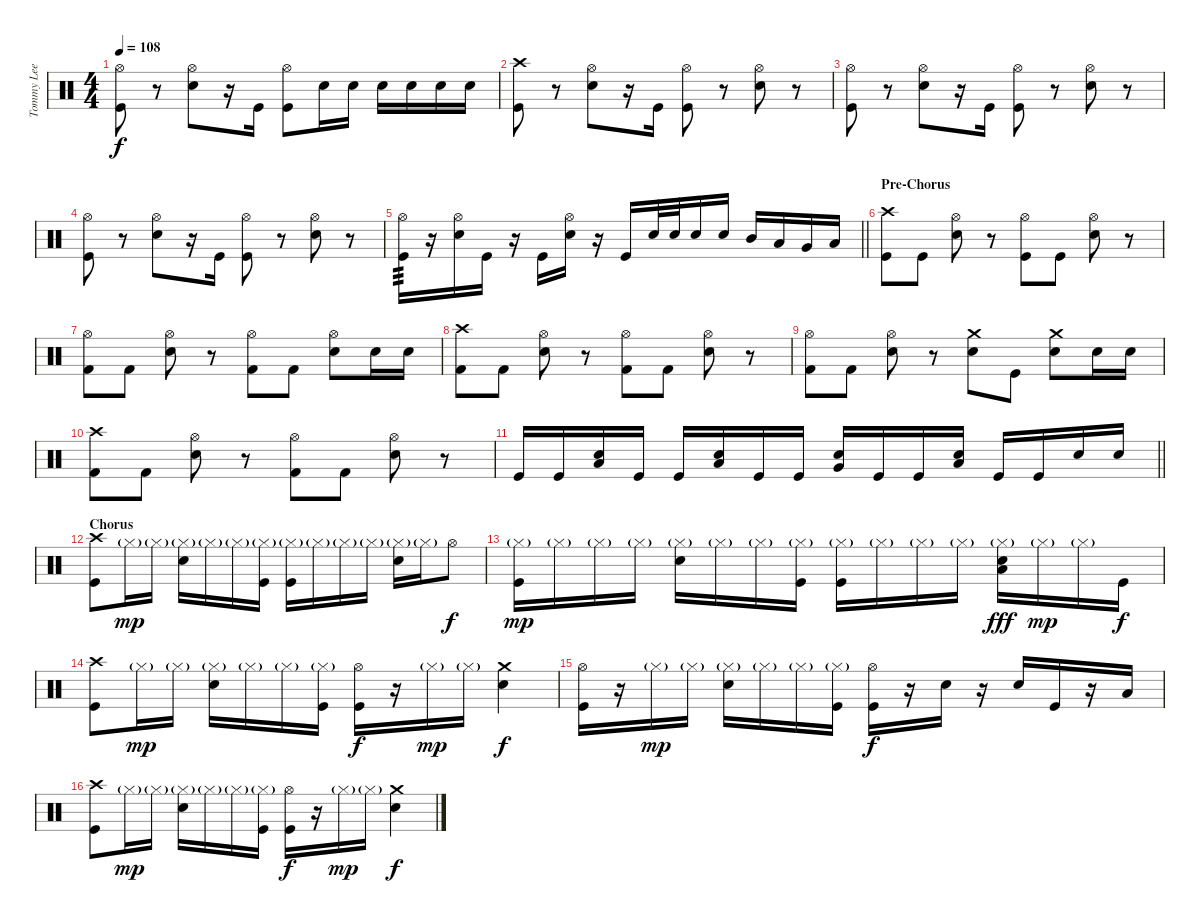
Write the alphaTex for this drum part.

\track ("Tommy Lee" "Tommy Lee") {instrument percussion}
\staff {score}
\articulation defaults
\ts (4 4)
\tempo 108
\clef neutral
\ks c
("Hi-Hat (open)" "Kick (hit)").8{dy f} r.8 ("Hi-Hat (open)" "Snare (hit) 2").8 r.16 "Kick (hit)".16 ("Hi-Hat (open)" "Kick (hit)").8 "Snare (hit) 2".16 "Snare (hit) 2".16 "Snare (hit) 2".16 "Snare (hit) 2".16 "Snare (hit) 2".16 "Snare (hit) 2".16 |
("Crash high (hit)" "Kick (hit)").8 r.8 ("Hi-Hat (open)" "Snare (hit) 2").8 r.16 "Kick (hit)".16 ("Hi-Hat (open)" "Kick (hit)").8 r.8 ("Hi-Hat (open)" "Snare (hit) 2").8 r.8 |
("Hi-Hat (open)" "Kick (hit)").8 r.8 ("Hi-Hat (open)" "Snare (hit) 2").8 r.16 "Kick (hit)".16 ("Hi-Hat (open)" "Kick (hit)").8 r.8 ("Hi-Hat (open)" "Snare (hit) 2").8 r.8 |
("Hi-Hat (open)" "Kick (hit)").8 r.8 ("Hi-Hat (open)" "Snare (hit) 2").8 r.16 "Kick (hit)".16 ("Hi-Hat (open)" "Kick (hit)").8 r.8 ("Hi-Hat (open)" "Snare (hit) 2").8 r.8 |
\barLineRight lightlight
("Hi-Hat (open)" "Kick (hit)").16{tp 3} r.16 ("Hi-Hat (open)" "Snare (hit) 2").16 "Kick (hit)".16 r.16 "Kick (hit)".16 ("Hi-Hat (open)" "Snare (hit) 2").16 r.16 "Kick (hit)".16 "Snare (hit) 2".32 "Snare (hit) 2".32 "Snare (hit) 2".16 "Snare (hit) 2".16 "Mid Tom (hit)".16 "Low Tom (hit)".16 "Very Low Tom (hit)".16 "Low Floor Tom (hit)".16 |
\section ("" "Pre-Chorus")
("Crash high (hit)" "Kick (hit)").8 "Kick (hit)".8 ("Hi-Hat (open)" "Snare (hit) 2").8 r.8 ("Hi-Hat (open)" "Kick (hit)").8 "Kick (hit)".8 ("Hi-Hat (open)" "Snare (hit) 2").8 r.8 |
("Hi-Hat (open)" "Kick (hit) 2").8 "Kick (hit) 2".8 ("Hi-Hat (open)" "Snare (hit) 2").8 r.8 ("Hi-Hat (open)" "Kick (hit) 2").8 "Kick (hit) 2".8 ("Hi-Hat (open)" "Snare (hit) 2").8 "Snare (hit) 2".16 "Snare (hit) 2".16 |
("Crash high (hit)" "Kick (hit) 2").8 "Kick (hit) 2".8 ("Hi-Hat (open)" "Snare (hit) 2").8 r.8 ("Hi-Hat (open)" "Kick (hit) 2").8 "Kick (hit) 2".8 ("Hi-Hat (open)" "Snare (hit) 2").8 r.8 |
("Hi-Hat (open)" "Kick (hit) 2").8 "Kick (hit) 2".8 ("Hi-Hat (open)" "Snare (hit) 2").8 r.8 ("Crash medium (hit)" "Snare (hit) 2").8 "Kick (hit)".8 ("Crash medium (hit)" "Snare (hit) 2").8 "Snare (hit) 2".16 "Snare (hit) 2".16 |
("Crash high (hit)" "Kick (hit) 2").8 "Kick (hit) 2".8 ("Hi-Hat (open)" "Snare (hit) 2").8 r.8 ("Hi-Hat (open)" "Kick (hit) 2").8 "Kick (hit) 2".8 ("Hi-Hat (open)" "Snare (hit) 2").8 r.8 |
\barLineRight lightlight "Kick (hit)".16 "Kick (hit)".16
("Low Tom (hit)" "Snare (hit) 2").16 "Kick (hit)".16 "Kick (hit)".16 ("Low Tom (hit)" "Snare (hit) 2").16 "Kick (hit)".16 "Kick (hit)".16 ("Very Low Tom (hit)" "Snare (hit) 2").16 "Kick (hit)".16 "Kick (hit)".16 ("Low Floor Tom (hit)" "Snare (hit) 2").16 "Kick (hit)".16 "Kick (hit)".16 "Snare (hit) 2".16 "Snare (hit) 2".16 |
\section ("" "Chorus")
("Crash high (hit)" "Kick (hit)").8 "Hi-Hat (closed)"{g}.16{dy mp} "Hi-Hat (closed)"{g}.16 ("Hi-Hat (closed)"{g} "Snare (hit) 2").16 "Hi-Hat (closed)"{g}.16 "Hi-Hat (closed)"{g}.16 ("Hi-Hat (closed)"{g} "Kick (hit)").16 ("Hi-Hat (closed)"{g} "Kick (hit)").16 "Hi-Hat (closed)"{g}.16 "Hi-Hat (closed)"{g}.16 "Hi-Hat (closed)"{g}.16 ("Hi-Hat (closed)"{g} "Snare (hit) 2").16 "Hi-Hat (closed)"{g}.16 "Hi-Hat (open)".8{dy f} |
("Hi-Hat (closed)"{g} "Kick (hit)").16{dy mp} "Hi-Hat (closed)"{g}.16 "Hi-Hat (closed)"{g}.16 "Hi-Hat (closed)"{g}.16 ("Hi-Hat (closed)"{g} "Snare (hit) 2").16 "Hi-Hat (closed)"{g}.16 "Hi-Hat (closed)"{g}.16 ("Hi-Hat (closed)"{g} "Kick (hit)").16 ("Hi-Hat (closed)"{g} "Kick (hit)").16 "Hi-Hat (closed)"{g}.16 "Hi-Hat (closed)"{g}.16 "Hi-Hat (closed)"{g}.16 ("Hi-Hat (closed)"{g} "Low Tom (hit)" "Snare (hit) 2").16{dy fff} "Hi-Hat (closed)"{g}.16{dy mp} "Hi-Hat (closed)"{g}.16 "Kick (hit)".16{dy f} |
("Crash high (hit)" "Kick (hit)").8 "Hi-Hat (closed)"{g}.16{dy mp} "Hi-Hat (closed)"{g}.16 ("Hi-Hat (closed)"{g} "Snare (hit) 2").16 "Hi-Hat (closed)"{g}.16 "Hi-Hat (closed)"{g}.16 ("Hi-Hat (closed)"{g} "Kick (hit)").16 ("Hi-Hat (open)" "Kick (hit)").16{dy f} r.16 "Hi-Hat (closed)"{g}.16{dy mp} "Hi-Hat (closed)"{g}.16 ("Crash medium (hit)" "Snare (hit) 2").4{dy f} |
("Hi-Hat (open)" "Kick (hit)").16 r.16 "Hi-Hat (closed)"{g}.16{dy mp} "Hi-Hat (closed)"{g}.16 ("Hi-Hat (closed)"{g} "Snare (hit) 2").16 "Hi-Hat (closed)"{g}.16 "Hi-Hat (closed)"{g}.16 ("Hi-Hat (closed)"{g} "Kick (hit)").16 ("Hi-Hat (open)" "Kick (hit)").16{dy f} r.16 "Snare (hit) 2".16 r.16 "Snare (hit) 2".16 "Kick (hit)".16 r.16 "Low Tom (hit)".16 |
("Crash high (hit)" "Kick (hit)").8 "Hi-Hat (closed)"{g}.16{dy mp} "Hi-Hat (closed)"{g}.16 ("Hi-Hat (closed)"{g} "Snare (hit) 2").16 "Hi-Hat (closed)"{g}.16 "Hi-Hat (closed)"{g}.16 ("Hi-Hat (closed)"{g} "Kick (hit)").16 ("Hi-Hat (open)" "Kick (hit)").16{dy f} r.16 "Hi-Hat (closed)"{g}.16{dy mp} "Hi-Hat (closed)"{g}.16 ("Crash medium (hit)" "Snare (hit) 2").4{dy f}
